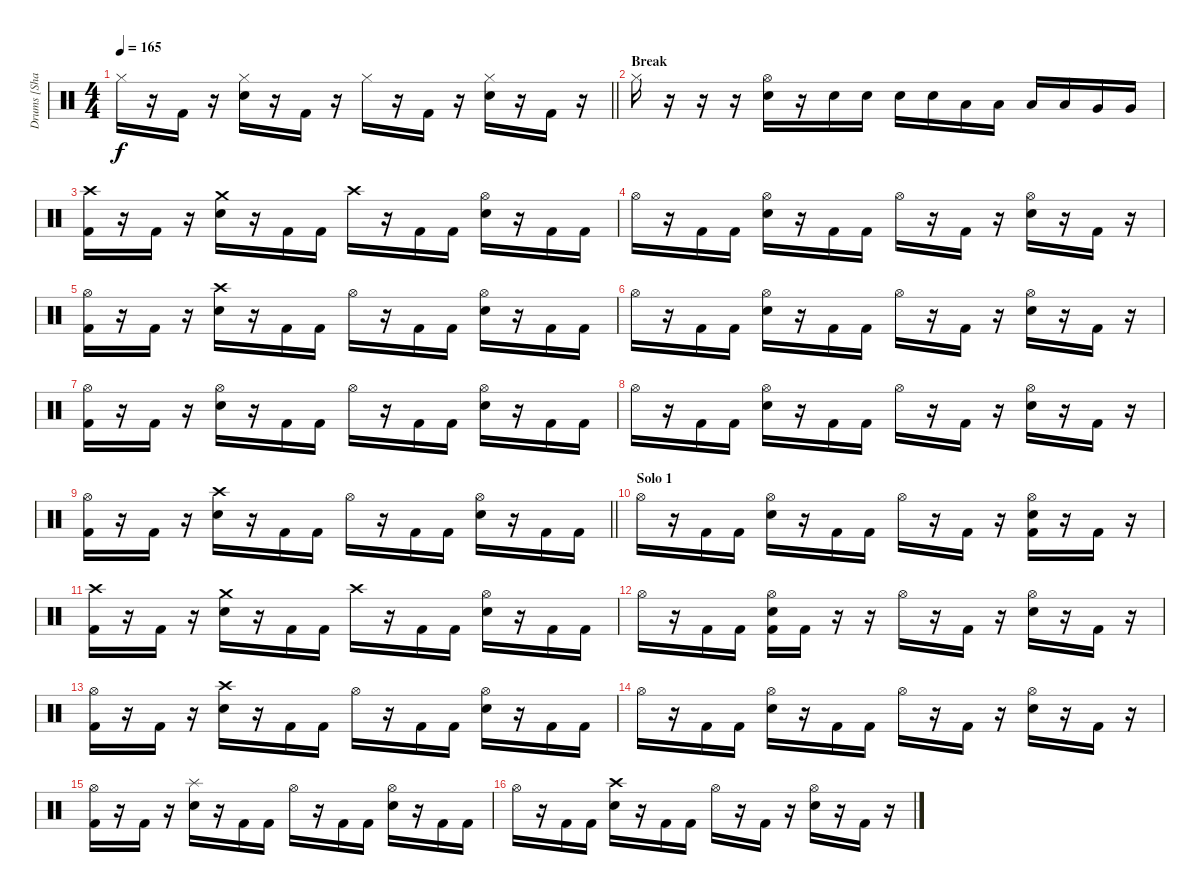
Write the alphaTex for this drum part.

\track ("Drums [Shawn Drover]" "Drums [Sha") {instrument percussion}
\staff {score}
\articulation defaults
\ts (4 4)
\tempo 165
\clef neutral
\barLineRight lightlight
\ks c "Hi-Hat (closed)".16{dy f}
r.16 "Kick (hit) 2".16 r.16 ("Hi-Hat (closed)" "Electric Snare (hit)").16 r.16 "Kick (hit) 2".16 r.16 "Hi-Hat (closed)".16 r.16 "Kick (hit) 2".16 r.16 ("Hi-Hat (closed)" "Electric Snare (hit)").16 r.16 "Kick (hit) 2".16 r.16 |
\section ("" "Break")
"Hi-Hat (closed)".16 r.16 r.16 r.16 ("Hi-Hat (open)" "Electric Snare (hit)").16 r.16 "Electric Snare (hit)".16 "Electric Snare (hit)".16 "Electric Snare (hit)".16 "Electric Snare (hit)".16 "Low Tom (hit)".16 "Low Tom (hit)".16 "Low Tom (hit)".16 "Low Tom (hit)".16 "Very Low Tom (hit)".16 "Very Low Tom (hit)".16 |
("Crash high (hit)" "Kick (hit) 2").16 r.16 "Kick (hit) 2".16 r.16 ("Crash medium (hit)" "Electric Snare (hit)").16 r.16 "Kick (hit) 2".16 "Kick (hit) 2".16 "Crash high (hit)".16 r.16 "Kick (hit) 2".16 "Kick (hit) 2".16 ("Hi-Hat (open)" "Electric Snare (hit)").16 r.16 "Kick (hit) 2".16 "Kick (hit) 2".16 |
"Hi-Hat (open)".16 r.16 "Kick (hit) 2".16 "Kick (hit) 2".16 ("Hi-Hat (open)" "Electric Snare (hit)").16 r.16 "Kick (hit) 2".16 "Kick (hit) 2".16 "Hi-Hat (open)".16 r.16 "Kick (hit) 2".16 r.16 ("Hi-Hat (open)" "Electric Snare (hit)").16 r.16 "Kick (hit) 2".16 r.16 |
("Hi-Hat (open)" "Kick (hit) 2").16 r.16 "Kick (hit) 2".16 r.16 ("Crash high (hit)" "Electric Snare (hit)").16 r.16 "Kick (hit) 2".16 "Kick (hit) 2".16 "Hi-Hat (open)".16 r.16 "Kick (hit) 2".16 "Kick (hit) 2".16 ("Hi-Hat (open)" "Electric Snare (hit)").16 r.16 "Kick (hit) 2".16 "Kick (hit) 2".16 |
"Hi-Hat (open)".16 r.16 "Kick (hit) 2".16 "Kick (hit) 2".16 ("Hi-Hat (open)" "Electric Snare (hit)").16 r.16 "Kick (hit) 2".16 "Kick (hit) 2".16 "Hi-Hat (open)".16 r.16 "Kick (hit) 2".16 r.16 ("Hi-Hat (open)" "Electric Snare (hit)").16 r.16 "Kick (hit) 2".16 r.16 |
("Hi-Hat (open)" "Kick (hit) 2").16 r.16 "Kick (hit) 2".16 r.16 ("Hi-Hat (open)" "Electric Snare (hit)").16 r.16 "Kick (hit) 2".16 "Kick (hit) 2".16 "Hi-Hat (open)".16 r.16 "Kick (hit) 2".16 "Kick (hit) 2".16 ("Hi-Hat (open)" "Electric Snare (hit)").16 r.16 "Kick (hit) 2".16 "Kick (hit) 2".16 |
"Hi-Hat (open)".16 r.16 "Kick (hit) 2".16 "Kick (hit) 2".16 ("Hi-Hat (open)" "Electric Snare (hit)").16 r.16 "Kick (hit) 2".16 "Kick (hit) 2".16 "Hi-Hat (open)".16 r.16 "Kick (hit) 2".16 r.16 ("Hi-Hat (open)" "Electric Snare (hit)").16 r.16 "Kick (hit) 2".16 r.16 |
\barLineRight lightlight
("Hi-Hat (open)" "Kick (hit) 2").16 r.16 "Kick (hit) 2".16 r.16 ("Crash high (hit)" "Electric Snare (hit)").16 r.16 "Kick (hit) 2".16 "Kick (hit) 2".16 "Hi-Hat (open)".16 r.16 "Kick (hit) 2".16 "Kick (hit) 2".16 ("Hi-Hat (open)" "Electric Snare (hit)").16 r.16 "Kick (hit) 2".16 "Kick (hit) 2".16 |
\section ("" "Solo 1")
"Hi-Hat (open)".16 r.16 "Kick (hit) 2".16 "Kick (hit) 2".16 ("Hi-Hat (open)" "Electric Snare (hit)").16 r.16 "Kick (hit) 2".16 "Kick (hit) 2".16 "Hi-Hat (open)".16 r.16 "Kick (hit) 2".16 r.16 ("Hi-Hat (open)" "Electric Snare (hit)" "Kick (hit) 2").16 r.16 "Kick (hit) 2".16 r.16 |
("Crash high (hit)" "Kick (hit) 2").16 r.16 "Kick (hit) 2".16 r.16 ("Crash medium (hit)" "Electric Snare (hit)").16 r.16 "Kick (hit) 2".16 "Kick (hit) 2".16 "Crash high (hit)".16 r.16 "Kick (hit) 2".16 "Kick (hit) 2".16 ("Hi-Hat (open)" "Electric Snare (hit)").16 r.16 "Kick (hit) 2".16 "Kick (hit) 2".16 |
"Hi-Hat (open)".16 r.16 "Kick (hit) 2".16 "Kick (hit) 2".16 ("Hi-Hat (open)" "Electric Snare (hit)" "Kick (hit) 2").16 "Kick (hit) 2".16 r.16 r.16 "Hi-Hat (open)".16 r.16 "Kick (hit) 2".16 r.16 ("Hi-Hat (open)" "Electric Snare (hit)").16 r.16 "Kick (hit) 2".16 r.16 |
("Hi-Hat (open)" "Kick (hit) 2").16 r.16 "Kick (hit) 2".16 r.16 ("Crash high (hit)" "Electric Snare (hit)").16 r.16 "Kick (hit) 2".16 "Kick (hit) 2".16 "Hi-Hat (open)".16 r.16 "Kick (hit) 2".16 "Kick (hit) 2".16 ("Hi-Hat (open)" "Electric Snare (hit)").16 r.16 "Kick (hit) 2".16 "Kick (hit) 2".16 |
"Hi-Hat (open)".16 r.16 "Kick (hit) 2".16 "Kick (hit) 2".16 ("Hi-Hat (open)" "Electric Snare (hit)").16 r.16 "Kick (hit) 2".16 "Kick (hit) 2".16 "Hi-Hat (open)".16 r.16 "Kick (hit) 2".16 r.16 ("Hi-Hat (open)" "Electric Snare (hit)").16 r.16 "Kick (hit) 2".16 r.16 |
("Hi-Hat (open)" "Kick (hit) 2").16 r.16 "Kick (hit) 2".16 r.16 ("Splash (hit)" "Electric Snare (hit)").16 r.16 "Kick (hit) 2".16 "Kick (hit) 2".16 "Hi-Hat (open)".16 r.16 "Kick (hit) 2".16 "Kick (hit) 2".16 ("Hi-Hat (open)" "Electric Snare (hit)").16 r.16 "Kick (hit) 2".16 "Kick (hit) 2".16 |
"Hi-Hat (open)".16 r.16 "Kick (hit) 2".16 "Kick (hit) 2".16 ("Crash high (hit)" "Electric Snare (hit)").16 r.16 "Kick (hit) 2".16 "Kick (hit) 2".16 "Hi-Hat (open)".16 r.16 "Kick (hit) 2".16 r.16 ("Hi-Hat (open)" "Electric Snare (hit)").16 r.16 "Kick (hit) 2".16 r.16
